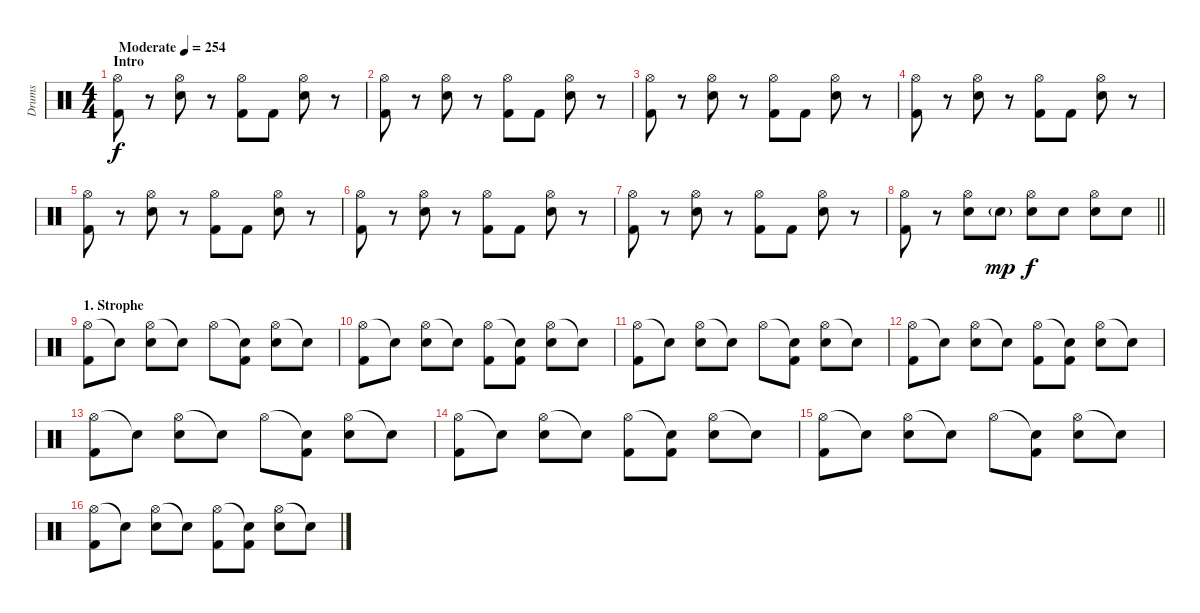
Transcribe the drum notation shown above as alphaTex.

\track ("Drums" "Drums") {instrument percussion}
\staff {score}
\articulation defaults
\ts (4 4)
\section ("" "Intro")
\tempo (254 "Moderate")
\clef neutral
\ks c
("Hi-Hat (open)" "Kick (hit) 2").8{dy f} r.8 ("Hi-Hat (open)" "Electric Snare (hit)").8 r.8 ("Hi-Hat (open)" "Kick (hit) 2").8 "Kick (hit) 2".8 ("Hi-Hat (open)" "Electric Snare (hit)").8 r.8 |
("Hi-Hat (open)" "Kick (hit) 2").8 r.8 ("Hi-Hat (open)" "Electric Snare (hit)").8 r.8 ("Hi-Hat (open)" "Kick (hit) 2").8 "Kick (hit) 2".8 ("Hi-Hat (open)" "Electric Snare (hit)").8 r.8 |
("Hi-Hat (open)" "Kick (hit) 2").8 r.8 ("Hi-Hat (open)" "Electric Snare (hit)").8 r.8 ("Hi-Hat (open)" "Kick (hit) 2").8 "Kick (hit) 2".8 ("Hi-Hat (open)" "Electric Snare (hit)").8 r.8 |
("Hi-Hat (open)" "Kick (hit) 2").8 r.8 ("Hi-Hat (open)" "Electric Snare (hit)").8 r.8 ("Hi-Hat (open)" "Kick (hit) 2").8 "Kick (hit) 2".8 ("Hi-Hat (open)" "Electric Snare (hit)").8 r.8 |
("Hi-Hat (open)" "Kick (hit) 2").8 r.8 ("Hi-Hat (open)" "Electric Snare (hit)").8 r.8 ("Hi-Hat (open)" "Kick (hit) 2").8 "Kick (hit) 2".8 ("Hi-Hat (open)" "Electric Snare (hit)").8 r.8 |
("Hi-Hat (open)" "Kick (hit) 2").8 r.8 ("Hi-Hat (open)" "Electric Snare (hit)").8 r.8 ("Hi-Hat (open)" "Kick (hit) 2").8 "Kick (hit) 2".8 ("Hi-Hat (open)" "Electric Snare (hit)").8 r.8 |
("Hi-Hat (open)" "Kick (hit) 2").8 r.8 ("Hi-Hat (open)" "Electric Snare (hit)").8 r.8 ("Hi-Hat (open)" "Kick (hit) 2").8 "Kick (hit) 2".8 ("Hi-Hat (open)" "Electric Snare (hit)").8 r.8 |
\barLineRight lightlight
("Hi-Hat (open)" "Kick (hit) 2").8 r.8 ("Hi-Hat (open)" "Electric Snare (hit)").8 "Electric Snare (hit)"{g}.8{dy mp} ("Hi-Hat (open)" "Electric Snare (hit)").8{dy f} "Electric Snare (hit)".8 ("Hi-Hat (open)" "Electric Snare (hit)").8 "Electric Snare (hit)".8 |
\section ("" "1. Strophe")
("Hi-Hat (open)" "Kick (hit) 2").8 "Snare (hit)"{t}.8 ("Hi-Hat (open)" "Electric Snare (hit)").8 "Snare (hit)"{t}.8 "Hi-Hat (open)".8 ("Snare (hit)"{t} "Kick (hit) 2").8 ("Hi-Hat (open)" "Electric Snare (hit)").8 "Snare (hit)"{t}.8 |
("Hi-Hat (open)" "Kick (hit) 2").8 "Snare (hit)"{t}.8 ("Hi-Hat (open)" "Electric Snare (hit)").8 "Snare (hit)"{t}.8 ("Hi-Hat (open)" "Kick (hit) 2").8 ("Snare (hit)"{t} "Kick (hit) 2").8 ("Hi-Hat (open)" "Electric Snare (hit)").8 "Snare (hit)"{t}.8 |
("Hi-Hat (open)" "Kick (hit) 2").8 "Snare (hit)"{t}.8 ("Hi-Hat (open)" "Electric Snare (hit)").8 "Snare (hit)"{t}.8 "Hi-Hat (open)".8 ("Snare (hit)"{t} "Kick (hit) 2").8 ("Hi-Hat (open)" "Electric Snare (hit)").8 "Snare (hit)"{t}.8 |
("Hi-Hat (open)" "Kick (hit) 2").8 "Snare (hit)"{t}.8 ("Hi-Hat (open)" "Electric Snare (hit)").8 "Snare (hit)"{t}.8 ("Hi-Hat (open)" "Kick (hit) 2").8 ("Snare (hit)"{t} "Kick (hit) 2").8 ("Hi-Hat (open)" "Electric Snare (hit)").8 "Snare (hit)"{t}.8 |
("Hi-Hat (open)" "Kick (hit) 2").8 "Snare (hit)"{t}.8 ("Hi-Hat (open)" "Electric Snare (hit)").8 "Snare (hit)"{t}.8 "Hi-Hat (open)".8 ("Snare (hit)"{t} "Kick (hit) 2").8 ("Hi-Hat (open)" "Electric Snare (hit)").8 "Snare (hit)"{t}.8 |
("Hi-Hat (open)" "Kick (hit) 2").8 "Snare (hit)"{t}.8 ("Hi-Hat (open)" "Electric Snare (hit)").8 "Snare (hit)"{t}.8 ("Hi-Hat (open)" "Kick (hit) 2").8 ("Snare (hit)"{t} "Kick (hit) 2").8 ("Hi-Hat (open)" "Electric Snare (hit)").8 "Snare (hit)"{t}.8 |
("Hi-Hat (open)" "Kick (hit) 2").8 "Snare (hit)"{t}.8 ("Hi-Hat (open)" "Electric Snare (hit)").8 "Snare (hit)"{t}.8 "Hi-Hat (open)".8 ("Snare (hit)"{t} "Kick (hit) 2").8 ("Hi-Hat (open)" "Electric Snare (hit)").8 "Snare (hit)"{t}.8 |
("Hi-Hat (open)" "Kick (hit) 2").8 "Snare (hit)"{t}.8 ("Hi-Hat (open)" "Electric Snare (hit)").8 "Snare (hit)"{t}.8 ("Hi-Hat (open)" "Kick (hit) 2").8 ("Snare (hit)"{t} "Kick (hit) 2").8 ("Hi-Hat (open)" "Electric Snare (hit)").8 "Snare (hit)"{t}.8
